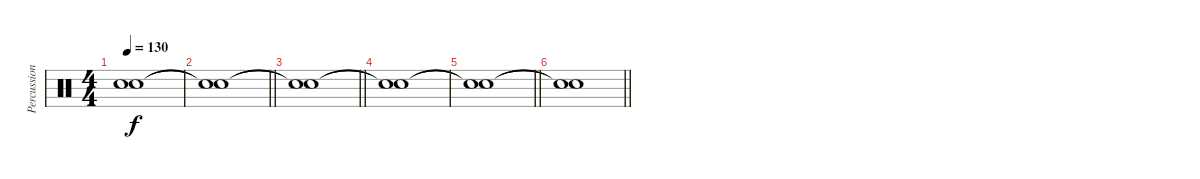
\track ("Percussion" "Percussion") {instrument percussion}
\staff {score}
\articulation defaults
\ts (4 4)
\tempo 130
\clef neutral
\ks c
("Snare (hit)"{t} "Snare (hit)"{t}).1{dy f volume 0} |
\barLineRight lightlight
("Snare (hit)"{t} "Snare (hit)"{t}).1 |
\barLineRight lightlight
("Snare (hit)"{t} "Snare (hit)"{t}).1 |
("Snare (hit)"{t} "Snare (hit)"{t}).1 |
\barLineRight lightlight
("Snare (hit)"{t} "Snare (hit)"{t}).1 |
\barLineRight lightlight
("Snare (hit)"{t} "Snare (hit)"{t}).1
